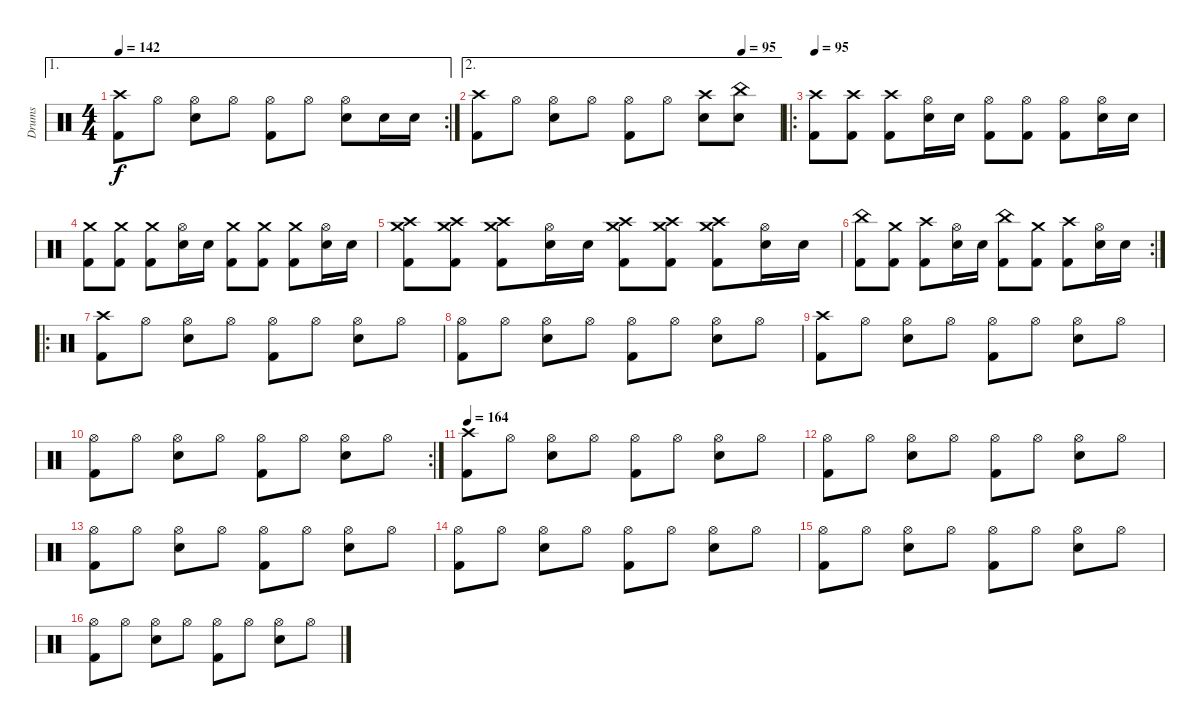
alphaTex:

\track ("Drums" "Drums") {instrument percussion}
\staff {score}
\articulation defaults
\ae 1
\rc 2
\ts (4 4)
\tempo 142
\clef neutral
\ks c
("Crash high (hit)" "Kick (hit) 2").8{dy f} "Hi-Hat (open)".8 ("Hi-Hat (open)" "Snare (hit) 2").8 "Hi-Hat (open)".8 ("Hi-Hat (open)" "Kick (hit) 2").8 "Hi-Hat (open)".8 ("Hi-Hat (open)" "Snare (hit) 2").8 "Snare (hit) 2".16 "Snare (hit) 2".16 |
\ae 2
\tempo (95 0.875)
("Crash high (hit)" "Kick (hit) 2").8 "Hi-Hat (open)".8 ("Hi-Hat (open)" "Snare (hit) 2").8 "Hi-Hat (open)".8 ("Hi-Hat (open)" "Kick (hit) 2").8 "Hi-Hat (open)".8 ("Crash high (hit)" "Snare (hit) 2").8 ("China (hit)" "Snare (hit) 2").8 |
\ro
\tempo 95
("Crash high (hit)" "Kick (hit) 2").8 ("Crash high (hit)" "Kick (hit) 2").8 ("Crash high (hit)" "Kick (hit) 2").8 ("Hi-Hat (open)" "Snare (hit) 2").16 "Snare (hit) 2".16 ("Hi-Hat (open)" "Kick (hit) 2").8 ("Hi-Hat (open)" "Kick (hit) 2").8 ("Hi-Hat (open)" "Kick (hit) 2").8 ("Hi-Hat (open)" "Snare (hit) 2").16 "Snare (hit) 2".16 |
("Crash medium (hit)" "Kick (hit) 2").8 ("Crash medium (hit)" "Kick (hit) 2").8 ("Crash medium (hit)" "Kick (hit) 2").8 ("Hi-Hat (open)" "Snare (hit) 2").16 "Snare (hit) 2".16 ("Crash medium (hit)" "Kick (hit) 2").8 ("Crash medium (hit)" "Kick (hit) 2").8 ("Crash medium (hit)" "Kick (hit) 2").8 ("Hi-Hat (open)" "Snare (hit) 2").16 "Snare (hit) 2".16 |
("Crash high (hit)" "Crash medium (hit)" "Kick (hit) 2").8 ("Crash high (hit)" "Crash medium (hit)" "Kick (hit) 2").8 ("Crash high (hit)" "Crash medium (hit)" "Kick (hit) 2").8 ("Hi-Hat (open)" "Snare (hit) 2").16 "Snare (hit) 2".16 ("Crash high (hit)" "Crash medium (hit)" "Kick (hit) 2").8 ("Crash high (hit)" "Crash medium (hit)" "Kick (hit) 2").8 ("Crash high (hit)" "Crash medium (hit)" "Kick (hit) 2").8 ("Hi-Hat (open)" "Snare (hit) 2").16 "Snare (hit) 2".16 |
\rc 2
("China (hit)" "Kick (hit) 2").8 ("Crash medium (hit)" "Kick (hit) 2").8 ("Crash high (hit)" "Kick (hit) 2").8 ("Hi-Hat (open)" "Snare (hit) 2").16 "Snare (hit) 2".16 ("China (hit)" "Kick (hit) 2").8 ("Crash medium (hit)" "Kick (hit) 2").8 ("Crash high (hit)" "Kick (hit) 2").8 ("Hi-Hat (open)" "Snare (hit) 2").16 "Snare (hit) 2".16 |
\ro
("Crash high (hit)" "Kick (hit) 2").8 "Hi-Hat (open)".8 ("Hi-Hat (open)" "Snare (hit) 2").8 "Hi-Hat (open)".8 ("Hi-Hat (open)" "Kick (hit) 2").8 "Hi-Hat (open)".8 ("Hi-Hat (open)" "Snare (hit) 2").8 "Hi-Hat (open)".8 |
("Hi-Hat (open)" "Kick (hit) 2").8 "Hi-Hat (open)".8 ("Hi-Hat (open)" "Snare (hit) 2").8 "Hi-Hat (open)".8 ("Hi-Hat (open)" "Kick (hit) 2").8 "Hi-Hat (open)".8 ("Hi-Hat (open)" "Snare (hit) 2").8 "Hi-Hat (open)".8 |
("Crash high (hit)" "Kick (hit) 2").8 "Hi-Hat (open)".8 ("Hi-Hat (open)" "Snare (hit) 2").8 "Hi-Hat (open)".8 ("Hi-Hat (open)" "Kick (hit) 2").8 "Hi-Hat (open)".8 ("Hi-Hat (open)" "Snare (hit) 2").8 "Hi-Hat (open)".8 |
\rc 2
("Hi-Hat (open)" "Kick (hit) 2").8 "Hi-Hat (open)".8 ("Hi-Hat (open)" "Snare (hit) 2").8 "Hi-Hat (open)".8 ("Hi-Hat (open)" "Kick (hit) 2").8 "Hi-Hat (open)".8 ("Hi-Hat (open)" "Snare (hit) 2").8 "Hi-Hat (open)".8 |
\tempo 164
("Crash high (hit)" "Kick (hit) 2").8 "Hi-Hat (open)".8 ("Hi-Hat (open)" "Snare (hit) 2").8 "Hi-Hat (open)".8 ("Hi-Hat (open)" "Kick (hit) 2").8 "Hi-Hat (open)".8 ("Hi-Hat (open)" "Snare (hit) 2").8 "Hi-Hat (open)".8 |
("Hi-Hat (open)" "Kick (hit) 2").8 "Hi-Hat (open)".8 ("Hi-Hat (open)" "Snare (hit) 2").8 "Hi-Hat (open)".8 ("Hi-Hat (open)" "Kick (hit) 2").8 "Hi-Hat (open)".8 ("Hi-Hat (open)" "Snare (hit) 2").8 "Hi-Hat (open)".8 |
("Hi-Hat (open)" "Kick (hit) 2").8 "Hi-Hat (open)".8 ("Hi-Hat (open)" "Snare (hit) 2").8 "Hi-Hat (open)".8 ("Hi-Hat (open)" "Kick (hit) 2").8 "Hi-Hat (open)".8 ("Hi-Hat (open)" "Snare (hit) 2").8 "Hi-Hat (open)".8 |
("Hi-Hat (open)" "Kick (hit) 2").8 "Hi-Hat (open)".8 ("Hi-Hat (open)" "Snare (hit) 2").8 "Hi-Hat (open)".8 ("Hi-Hat (open)" "Kick (hit) 2").8 "Hi-Hat (open)".8 ("Hi-Hat (open)" "Snare (hit) 2").8 "Hi-Hat (open)".8 |
("Hi-Hat (open)" "Kick (hit) 2").8 "Hi-Hat (open)".8 ("Hi-Hat (open)" "Snare (hit) 2").8 "Hi-Hat (open)".8 ("Hi-Hat (open)" "Kick (hit) 2").8 "Hi-Hat (open)".8 ("Hi-Hat (open)" "Snare (hit) 2").8 "Hi-Hat (open)".8 |
("Hi-Hat (open)" "Kick (hit) 2").8 "Hi-Hat (open)".8 ("Hi-Hat (open)" "Snare (hit) 2").8 "Hi-Hat (open)".8 ("Hi-Hat (open)" "Kick (hit) 2").8 "Hi-Hat (open)".8 ("Hi-Hat (open)" "Snare (hit) 2").8 "Hi-Hat (open)".8
